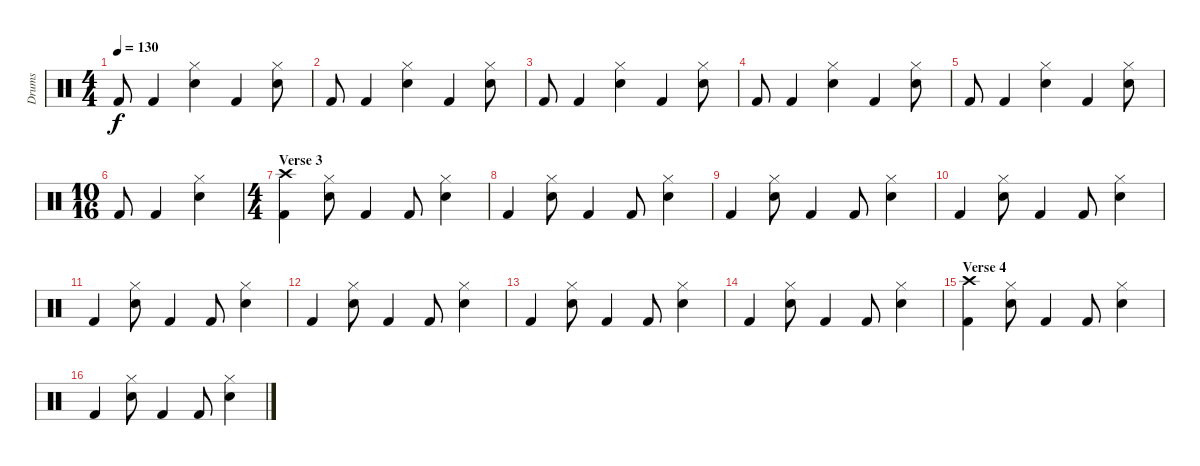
\track ("Drums" "Drums") {instrument percussion}
\staff {score}
\articulation defaults
\ts (4 4)
\tempo 130
\clef neutral
\ks c "Kick (hit) 2".8{dy f} "Kick (hit) 2".4
("Hi-Hat (closed)" "Snare (hit) 2").4 "Kick (hit) 2".4 ("Hi-Hat (closed)" "Snare (hit) 2").8 |
"Kick (hit) 2".8 "Kick (hit) 2".4 ("Hi-Hat (closed)" "Snare (hit) 2").4 "Kick (hit) 2".4 ("Hi-Hat (closed)" "Snare (hit) 2").8 |
"Kick (hit) 2".8 "Kick (hit) 2".4 ("Hi-Hat (closed)" "Snare (hit) 2").4 "Kick (hit) 2".4 ("Hi-Hat (closed)" "Snare (hit) 2").8 |
"Kick (hit) 2".8 "Kick (hit) 2".4 ("Hi-Hat (closed)" "Snare (hit) 2").4 "Kick (hit) 2".4 ("Hi-Hat (closed)" "Snare (hit) 2").8 |
"Kick (hit) 2".8 "Kick (hit) 2".4 ("Hi-Hat (closed)" "Snare (hit) 2").4 "Kick (hit) 2".4 ("Hi-Hat (closed)" "Snare (hit) 2").8 |
\ts (10 16)
"Kick (hit) 2".8 "Kick (hit) 2".4 ("Hi-Hat (closed)" "Snare (hit) 2").4 |
\ts (4 4)
\section ("" "Verse 3")
("Crash high (hit)" "Kick (hit) 2").4 ("Hi-Hat (closed)" "Snare (hit) 2").8 "Kick (hit) 2".4 "Kick (hit) 2".8 ("Hi-Hat (closed)" "Snare (hit) 2").4 |
"Kick (hit) 2".4 ("Hi-Hat (closed)" "Snare (hit) 2").8 "Kick (hit) 2".4 "Kick (hit) 2".8 ("Hi-Hat (closed)" "Snare (hit) 2").4 |
"Kick (hit) 2".4 ("Hi-Hat (closed)" "Snare (hit) 2").8 "Kick (hit) 2".4 "Kick (hit) 2".8 ("Hi-Hat (closed)" "Snare (hit) 2").4 |
"Kick (hit) 2".4 ("Hi-Hat (closed)" "Snare (hit) 2").8 "Kick (hit) 2".4 "Kick (hit) 2".8 ("Hi-Hat (closed)" "Snare (hit) 2").4 |
"Kick (hit) 2".4 ("Hi-Hat (closed)" "Snare (hit) 2").8 "Kick (hit) 2".4 "Kick (hit) 2".8 ("Hi-Hat (closed)" "Snare (hit) 2").4 |
"Kick (hit) 2".4 ("Hi-Hat (closed)" "Snare (hit) 2").8 "Kick (hit) 2".4 "Kick (hit) 2".8 ("Hi-Hat (closed)" "Snare (hit) 2").4 |
"Kick (hit) 2".4 ("Hi-Hat (closed)" "Snare (hit) 2").8 "Kick (hit) 2".4 "Kick (hit) 2".8 ("Hi-Hat (closed)" "Snare (hit) 2").4 |
"Kick (hit) 2".4 ("Hi-Hat (closed)" "Snare (hit) 2").8 "Kick (hit) 2".4 "Kick (hit) 2".8 ("Hi-Hat (closed)" "Snare (hit) 2").4 |
\section ("" "Verse 4")
("Crash high (hit)" "Kick (hit) 2").4 ("Hi-Hat (closed)" "Snare (hit) 2").8 "Kick (hit) 2".4 "Kick (hit) 2".8 ("Hi-Hat (closed)" "Snare (hit) 2").4 |
"Kick (hit) 2".4 ("Hi-Hat (closed)" "Snare (hit) 2").8 "Kick (hit) 2".4 "Kick (hit) 2".8 ("Hi-Hat (closed)" "Snare (hit) 2").4
